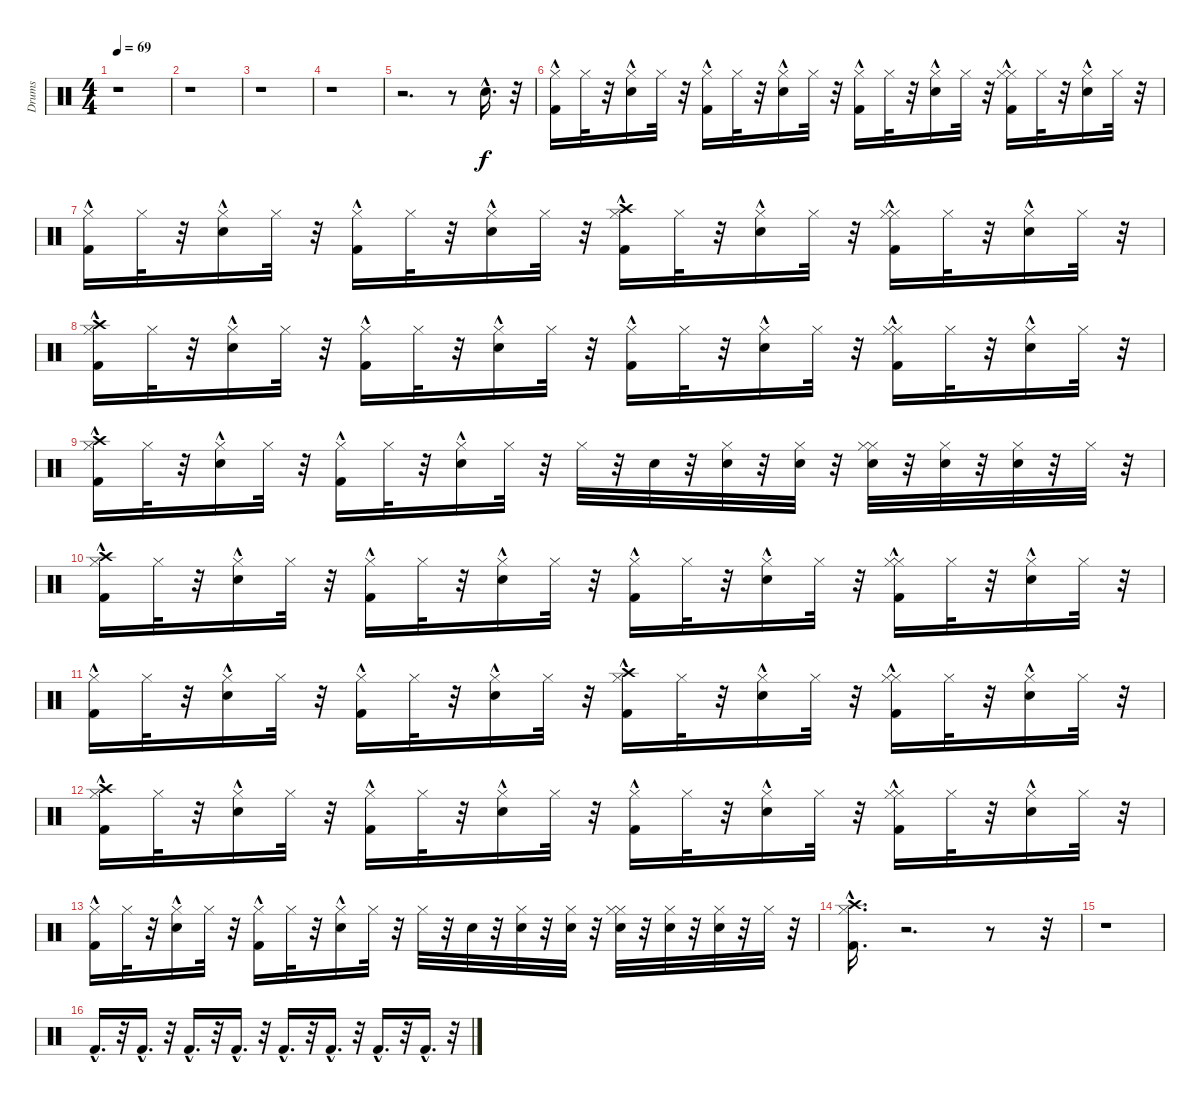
\track ("Drums" "Drums") {instrument percussion}
\staff {score}
\articulation defaults
\ts (4 4)
\tempo 69
\clef neutral
\ks c
r.1{dy f} |
r.1 |
r.1 |
r.1 |
r.2{d} r.8 "Snare (hit) 2"{hac}.16{d} r.32 |
("Hi-Hat (closed)" "Kick (hit) 2"{hac}).16 "Hi-Hat (closed)".32 r.32 ("Hi-Hat (closed)" "Snare (hit) 2"{hac}).16 "Hi-Hat (closed)".32 r.32 ("Hi-Hat (closed)" "Kick (hit) 2"{hac}).16 "Hi-Hat (closed)".32 r.32 ("Hi-Hat (closed)" "Snare (hit) 2"{hac}).16 "Hi-Hat (closed)".32 r.32 ("Hi-Hat (closed)" "Kick (hit) 2"{hac}).16 "Hi-Hat (closed)".32 r.32 ("Hi-Hat (closed)" "Snare (hit) 2"{hac}).16 "Hi-Hat (closed)".32 r.32 ("Hi-Hat (closed)" "Hi-Hat (closed)" "Kick (hit) 2"{hac}).16 "Hi-Hat (closed)".32 r.32 ("Hi-Hat (closed)" "Snare (hit) 2"{hac}).16 "Hi-Hat (closed)".32 r.32 |
("Hi-Hat (closed)" "Kick (hit) 2"{hac}).16 "Hi-Hat (closed)".32 r.32 ("Hi-Hat (closed)" "Snare (hit) 2"{hac}).16 "Hi-Hat (closed)".32 r.32 ("Hi-Hat (closed)" "Kick (hit) 2"{hac}).16 "Hi-Hat (closed)".32 r.32 ("Hi-Hat (closed)" "Snare (hit) 2"{hac}).16 "Hi-Hat (closed)".32 r.32 ("Crash high (hit)"{hac} "Hi-Hat (closed)" "Kick (hit) 2"{hac}).16 "Hi-Hat (closed)".32 r.32 ("Hi-Hat (closed)" "Snare (hit) 2"{hac}).16 "Hi-Hat (closed)".32 r.32 ("Hi-Hat (closed)" "Hi-Hat (closed)" "Kick (hit) 2"{hac}).16 "Hi-Hat (closed)".32 r.32 ("Hi-Hat (closed)" "Snare (hit) 2"{hac}).16 "Hi-Hat (closed)".32 r.32 |
("Hi-Hat (closed)" "Kick (hit) 2"{hac} "Crash high (hit)"{hac}).16 "Hi-Hat (closed)".32 r.32 ("Hi-Hat (closed)" "Snare (hit) 2"{hac}).16 "Hi-Hat (closed)".32 r.32 ("Hi-Hat (closed)" "Kick (hit) 2"{hac}).16 "Hi-Hat (closed)".32 r.32 ("Hi-Hat (closed)" "Snare (hit) 2"{hac}).16 "Hi-Hat (closed)".32 r.32 ("Hi-Hat (closed)" "Kick (hit) 2"{hac}).16 "Hi-Hat (closed)".32 r.32 ("Hi-Hat (closed)" "Snare (hit) 2"{hac}).16 "Hi-Hat (closed)".32 r.32 ("Hi-Hat (closed)" "Hi-Hat (closed)" "Kick (hit) 2"{hac}).16 "Hi-Hat (closed)".32 r.32 ("Hi-Hat (closed)" "Snare (hit) 2"{hac}).16 "Hi-Hat (closed)".32 r.32 |
("Crash high (hit)"{hac} "Hi-Hat (closed)" "Kick (hit) 2"{hac}).16 "Hi-Hat (closed)".32 r.32 ("Hi-Hat (closed)" "Snare (hit) 2"{hac}).16 "Hi-Hat (closed)".32 r.32 ("Hi-Hat (closed)" "Kick (hit) 2"{hac}).16 "Hi-Hat (closed)".32 r.32 ("Hi-Hat (closed)" "Snare (hit) 2"{hac}).16 "Hi-Hat (closed)".32 r.32 "Hi-Hat (closed)".32 r.32 "Snare (hit) 2".32 r.32 ("Snare (hit) 2" "Hi-Hat (closed)").32 r.32 ("Snare (hit) 2" "Hi-Hat (closed)").32 r.32 ("Snare (hit) 2" "Hi-Hat (closed)" "Hi-Hat (closed)").32 r.32 ("Snare (hit) 2" "Hi-Hat (closed)").32 r.32 ("Snare (hit) 2" "Hi-Hat (closed)").32 r.32 "Hi-Hat (closed)".32 r.32 |
("Hi-Hat (closed)" "Kick (hit) 2"{hac} "Crash high (hit)"{hac}).16 "Hi-Hat (closed)".32 r.32 ("Hi-Hat (closed)" "Snare (hit) 2"{hac}).16 "Hi-Hat (closed)".32 r.32 ("Hi-Hat (closed)" "Kick (hit) 2"{hac}).16 "Hi-Hat (closed)".32 r.32 ("Hi-Hat (closed)" "Snare (hit) 2"{hac}).16 "Hi-Hat (closed)".32 r.32 ("Hi-Hat (closed)" "Kick (hit) 2"{hac}).16 "Hi-Hat (closed)".32 r.32 ("Hi-Hat (closed)" "Snare (hit) 2"{hac}).16 "Hi-Hat (closed)".32 r.32 ("Hi-Hat (closed)" "Hi-Hat (closed)" "Kick (hit) 2"{hac}).16 "Hi-Hat (closed)".32 r.32 ("Hi-Hat (closed)" "Snare (hit) 2"{hac}).16 "Hi-Hat (closed)".32 r.32 |
("Hi-Hat (closed)" "Kick (hit) 2"{hac}).16 "Hi-Hat (closed)".32 r.32 ("Hi-Hat (closed)" "Snare (hit) 2"{hac}).16 "Hi-Hat (closed)".32 r.32 ("Hi-Hat (closed)" "Kick (hit) 2"{hac}).16 "Hi-Hat (closed)".32 r.32 ("Hi-Hat (closed)" "Snare (hit) 2"{hac}).16 "Hi-Hat (closed)".32 r.32 ("Crash high (hit)"{hac} "Hi-Hat (closed)" "Kick (hit) 2"{hac}).16 "Hi-Hat (closed)".32 r.32 ("Hi-Hat (closed)" "Snare (hit) 2"{hac}).16 "Hi-Hat (closed)".32 r.32 ("Hi-Hat (closed)" "Hi-Hat (closed)" "Kick (hit) 2"{hac}).16 "Hi-Hat (closed)".32 r.32 ("Hi-Hat (closed)" "Snare (hit) 2"{hac}).16 "Hi-Hat (closed)".32 r.32 |
("Hi-Hat (closed)" "Kick (hit) 2"{hac} "Crash high (hit)"{hac}).16 "Hi-Hat (closed)".32 r.32 ("Hi-Hat (closed)" "Snare (hit) 2"{hac}).16 "Hi-Hat (closed)".32 r.32 ("Hi-Hat (closed)" "Kick (hit) 2"{hac}).16 "Hi-Hat (closed)".32 r.32 ("Hi-Hat (closed)" "Snare (hit) 2"{hac}).16 "Hi-Hat (closed)".32 r.32 ("Hi-Hat (closed)" "Kick (hit) 2"{hac}).16 "Hi-Hat (closed)".32 r.32 ("Hi-Hat (closed)" "Snare (hit) 2"{hac}).16 "Hi-Hat (closed)".32 r.32 ("Hi-Hat (closed)" "Hi-Hat (closed)" "Kick (hit) 2"{hac}).16 "Hi-Hat (closed)".32 r.32 ("Hi-Hat (closed)" "Snare (hit) 2"{hac}).16 "Hi-Hat (closed)".32 r.32 |
("Hi-Hat (closed)" "Kick (hit) 2"{hac}).16 "Hi-Hat (closed)".32 r.32 ("Hi-Hat (closed)" "Snare (hit) 2"{hac}).16 "Hi-Hat (closed)".32 r.32 ("Hi-Hat (closed)" "Kick (hit) 2"{hac}).16 "Hi-Hat (closed)".32 r.32 ("Hi-Hat (closed)" "Snare (hit) 2"{hac}).16 "Hi-Hat (closed)".32 r.32 "Hi-Hat (closed)".32 r.32 "Snare (hit) 2".32 r.32 ("Snare (hit) 2" "Hi-Hat (closed)").32 r.32 ("Snare (hit) 2" "Hi-Hat (closed)").32 r.32 ("Snare (hit) 2" "Hi-Hat (closed)" "Hi-Hat (closed)").32 r.32 ("Snare (hit) 2" "Hi-Hat (closed)").32 r.32 ("Snare (hit) 2" "Hi-Hat (closed)").32 r.32 "Hi-Hat (closed)".32 r.32 |
("Hi-Hat (closed)" "Kick (hit) 2"{hac} "Crash high (hit)"{hac}).16{d} r.2{d} r.8 r.32 |
r.1 |
"Kick (hit) 2"{hac}.16{d} r.32 "Kick (hit) 2"{hac}.16{d} r.32 "Kick (hit) 2"{hac}.16{d} r.32 "Kick (hit) 2"{hac}.16{d} r.32 "Kick (hit) 2"{hac}.16{d} r.32 "Kick (hit) 2"{hac}.16{d} r.32 "Kick (hit) 2"{hac}.16{d} r.32 "Kick (hit) 2"{hac}.16{d} r.32
